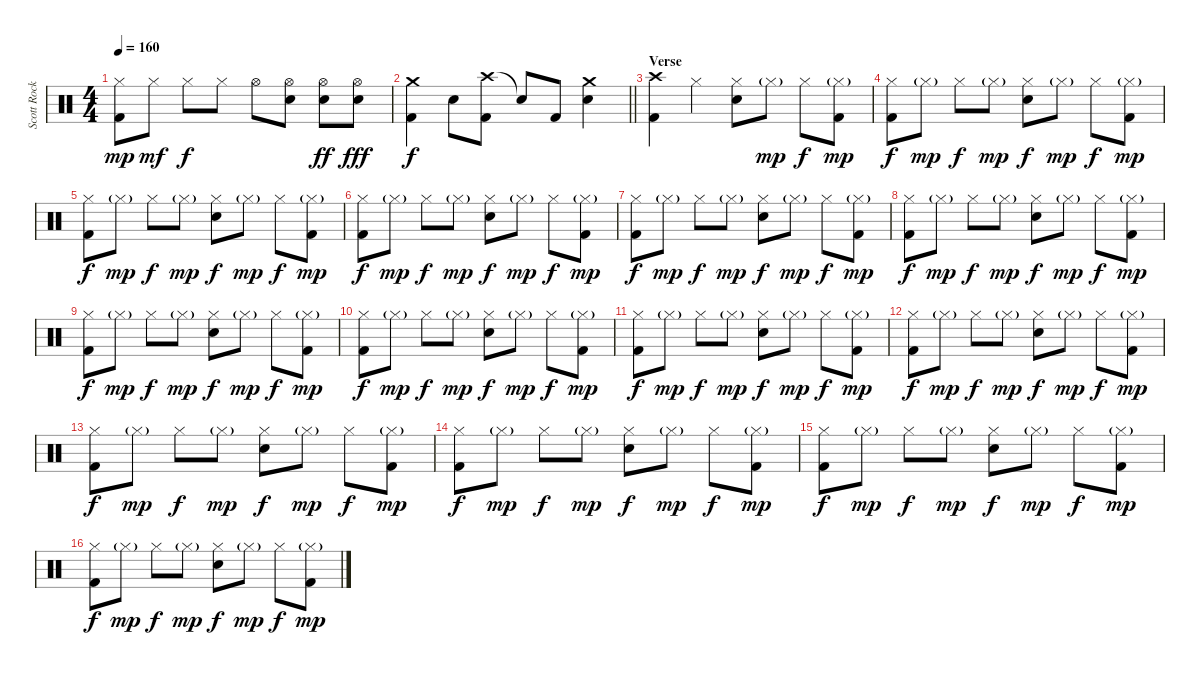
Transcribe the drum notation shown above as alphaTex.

\track ("Scott Rockenfield" "Scott Rock") {instrument percussion}
\staff {score}
\articulation defaults
\ts (4 4)
\tempo 160
\clef neutral
\ks c
("Hi-Hat (closed)" "Kick (hit) 2").8{dy mp} "Hi-Hat (closed)".8{dy mf} "Hi-Hat (closed)".8{dy f} "Hi-Hat (closed)".8 "Hi-Hat (open)".8 ("Hi-Hat (open)" "Electric Snare (hit)").8 ("Hi-Hat (open)" "Electric Snare (hit)").8{dy ff} ("Hi-Hat (open)" "Electric Snare (hit)").8{dy fff} |
\barLineRight lightlight
("Crash medium (hit)" "Kick (hit) 2").4{dy f} "Electric Snare (hit)".8 ("Crash high (hit)" "Kick (hit) 2").8 "Snare (hit)"{t}.8 "Kick (hit) 2".8 ("Crash medium (hit)" "Electric Snare (hit)").4 |
\section ("" "Verse")
("Crash high (hit)" "Kick (hit) 2").4 "Hi-Hat (closed)".4 ("Hi-Hat (closed)" "Electric Snare (hit)").8 "Hi-Hat (closed)"{g}.8{dy mp} "Hi-Hat (closed)".8{dy f} ("Hi-Hat (closed)"{g} "Kick (hit) 2").8{dy mp} |
("Hi-Hat (closed)" "Kick (hit) 2").8{dy f} "Hi-Hat (closed)"{g}.8{dy mp} "Hi-Hat (closed)".8{dy f} "Hi-Hat (closed)"{g}.8{dy mp} ("Hi-Hat (closed)" "Electric Snare (hit)").8{dy f} "Hi-Hat (closed)"{g}.8{dy mp} "Hi-Hat (closed)".8{dy f} ("Hi-Hat (closed)"{g} "Kick (hit) 2").8{dy mp} |
("Hi-Hat (closed)" "Kick (hit) 2").8{dy f} "Hi-Hat (closed)"{g}.8{dy mp} "Hi-Hat (closed)".8{dy f} "Hi-Hat (closed)"{g}.8{dy mp} ("Hi-Hat (closed)" "Electric Snare (hit)").8{dy f} "Hi-Hat (closed)"{g}.8{dy mp} "Hi-Hat (closed)".8{dy f} ("Hi-Hat (closed)"{g} "Kick (hit) 2").8{dy mp} |
("Hi-Hat (closed)" "Kick (hit) 2").8{dy f} "Hi-Hat (closed)"{g}.8{dy mp} "Hi-Hat (closed)".8{dy f} "Hi-Hat (closed)"{g}.8{dy mp} ("Hi-Hat (closed)" "Electric Snare (hit)").8{dy f} "Hi-Hat (closed)"{g}.8{dy mp} "Hi-Hat (closed)".8{dy f} ("Hi-Hat (closed)"{g} "Kick (hit) 2").8{dy mp} |
("Hi-Hat (closed)" "Kick (hit) 2").8{dy f} "Hi-Hat (closed)"{g}.8{dy mp} "Hi-Hat (closed)".8{dy f} "Hi-Hat (closed)"{g}.8{dy mp} ("Hi-Hat (closed)" "Electric Snare (hit)").8{dy f} "Hi-Hat (closed)"{g}.8{dy mp} "Hi-Hat (closed)".8{dy f} ("Hi-Hat (closed)"{g} "Kick (hit) 2").8{dy mp} |
("Hi-Hat (closed)" "Kick (hit) 2").8{dy f} "Hi-Hat (closed)"{g}.8{dy mp} "Hi-Hat (closed)".8{dy f} "Hi-Hat (closed)"{g}.8{dy mp} ("Hi-Hat (closed)" "Electric Snare (hit)").8{dy f} "Hi-Hat (closed)"{g}.8{dy mp} "Hi-Hat (closed)".8{dy f} ("Hi-Hat (closed)"{g} "Kick (hit) 2").8{dy mp} |
("Hi-Hat (closed)" "Kick (hit) 2").8{dy f} "Hi-Hat (closed)"{g}.8{dy mp} "Hi-Hat (closed)".8{dy f} "Hi-Hat (closed)"{g}.8{dy mp} ("Hi-Hat (closed)" "Electric Snare (hit)").8{dy f} "Hi-Hat (closed)"{g}.8{dy mp} "Hi-Hat (closed)".8{dy f} ("Hi-Hat (closed)"{g} "Kick (hit) 2").8{dy mp} |
("Hi-Hat (closed)" "Kick (hit) 2").8{dy f} "Hi-Hat (closed)"{g}.8{dy mp} "Hi-Hat (closed)".8{dy f} "Hi-Hat (closed)"{g}.8{dy mp} ("Hi-Hat (closed)" "Electric Snare (hit)").8{dy f} "Hi-Hat (closed)"{g}.8{dy mp} "Hi-Hat (closed)".8{dy f} ("Hi-Hat (closed)"{g} "Kick (hit) 2").8{dy mp} |
("Hi-Hat (closed)" "Kick (hit) 2").8{dy f} "Hi-Hat (closed)"{g}.8{dy mp} "Hi-Hat (closed)".8{dy f} "Hi-Hat (closed)"{g}.8{dy mp} ("Hi-Hat (closed)" "Electric Snare (hit)").8{dy f} "Hi-Hat (closed)"{g}.8{dy mp} "Hi-Hat (closed)".8{dy f} ("Hi-Hat (closed)"{g} "Kick (hit) 2").8{dy mp} |
("Hi-Hat (closed)" "Kick (hit) 2").8{dy f} "Hi-Hat (closed)"{g}.8{dy mp} "Hi-Hat (closed)".8{dy f} "Hi-Hat (closed)"{g}.8{dy mp} ("Hi-Hat (closed)" "Electric Snare (hit)").8{dy f} "Hi-Hat (closed)"{g}.8{dy mp} "Hi-Hat (closed)".8{dy f} ("Hi-Hat (closed)"{g} "Kick (hit) 2").8{dy mp} |
("Hi-Hat (closed)" "Kick (hit) 2").8{dy f} "Hi-Hat (closed)"{g}.8{dy mp} "Hi-Hat (closed)".8{dy f} "Hi-Hat (closed)"{g}.8{dy mp} ("Hi-Hat (closed)" "Electric Snare (hit)").8{dy f} "Hi-Hat (closed)"{g}.8{dy mp} "Hi-Hat (closed)".8{dy f} ("Hi-Hat (closed)"{g} "Kick (hit) 2").8{dy mp} |
("Hi-Hat (closed)" "Kick (hit) 2").8{dy f} "Hi-Hat (closed)"{g}.8{dy mp} "Hi-Hat (closed)".8{dy f} "Hi-Hat (closed)"{g}.8{dy mp} ("Hi-Hat (closed)" "Electric Snare (hit)").8{dy f} "Hi-Hat (closed)"{g}.8{dy mp} "Hi-Hat (closed)".8{dy f} ("Hi-Hat (closed)"{g} "Kick (hit) 2").8{dy mp} |
("Hi-Hat (closed)" "Kick (hit) 2").8{dy f} "Hi-Hat (closed)"{g}.8{dy mp} "Hi-Hat (closed)".8{dy f} "Hi-Hat (closed)"{g}.8{dy mp} ("Hi-Hat (closed)" "Electric Snare (hit)").8{dy f} "Hi-Hat (closed)"{g}.8{dy mp} "Hi-Hat (closed)".8{dy f} ("Hi-Hat (closed)"{g} "Kick (hit) 2").8{dy mp} |
("Hi-Hat (closed)" "Kick (hit) 2").8{dy f} "Hi-Hat (closed)"{g}.8{dy mp} "Hi-Hat (closed)".8{dy f} "Hi-Hat (closed)"{g}.8{dy mp} ("Hi-Hat (closed)" "Electric Snare (hit)").8{dy f} "Hi-Hat (closed)"{g}.8{dy mp} "Hi-Hat (closed)".8{dy f} ("Hi-Hat (closed)"{g} "Kick (hit) 2").8{dy mp}
